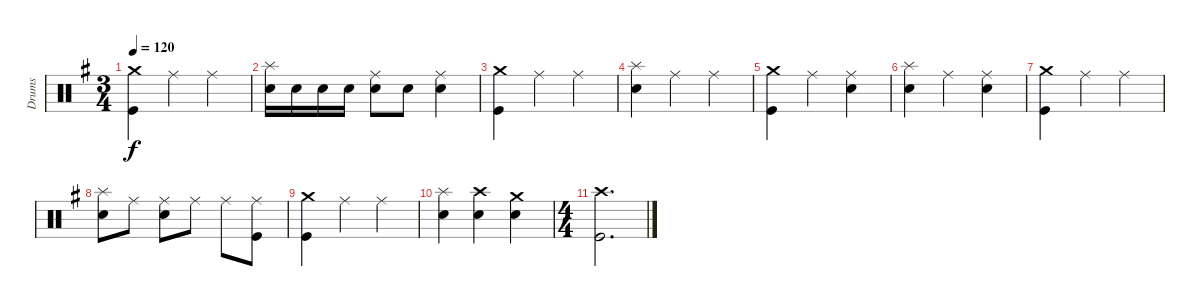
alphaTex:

\track ("Drums" "Drums") {instrument percussion}
\staff {score}
\articulation defaults
\ts (3 4)
\tempo 120
\clef neutral
\ks g
("Crash medium (hit)" "Kick (hit)").4{dy f} "Ride (middle)".4 "Ride (middle)".4 |
("Splash (hit)" "Snare (hit) 2").16 "Snare (hit) 2".16 "Snare (hit) 2".16 "Snare (hit) 2".16 ("Ride (middle)" "Snare (hit) 2").8 "Snare (hit) 2".8 ("Ride (middle)" "Snare (hit) 2").4 |
("Crash medium (hit)" "Kick (hit)").4 "Ride (middle)".4 "Ride (middle)".4 |
("Splash (hit)" "Snare (hit) 2").4 "Ride (middle)".4 "Ride (middle)".4 |
("Crash medium (hit)" "Kick (hit)").4 "Ride (middle)".4 ("Ride (middle)" "Snare (hit) 2").4 |
("Splash (hit)" "Snare (hit) 2").4 "Ride (middle)".4 ("Ride (middle)" "Snare (hit) 2").4 |
("Crash medium (hit)" "Kick (hit)").4 "Ride (middle)".4 "Ride (middle)".4 |
("Splash (hit)" "Snare (hit) 2").8 "Ride (middle)".8 ("Ride (middle)" "Snare (hit) 2").8 "Ride (middle)".8 "Ride (middle)".8 ("Ride (middle)" "Kick (hit)").8 |
("Crash medium (hit)" "Kick (hit)").4 "Ride (middle)".4 "Ride (middle)".4 |
("Splash (hit)" "Snare (hit) 2").4 ("Crash high (hit)" "Snare (hit) 2").4 ("Crash medium (hit)" "Snare (hit) 2").4 |
\ts (4 4)
("Crash high (hit)" "Kick (hit)").2{d}
